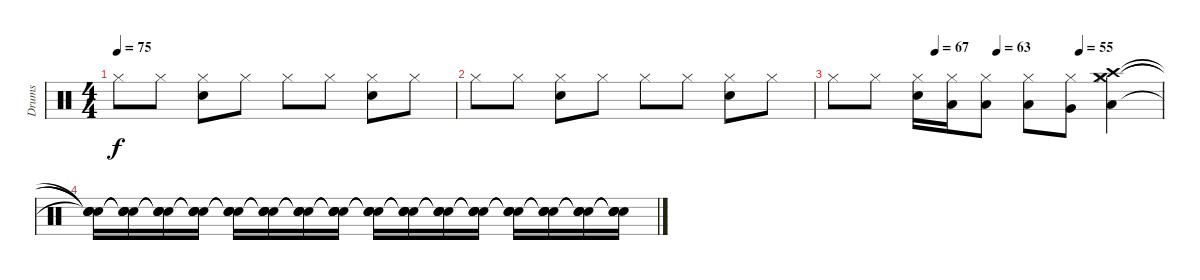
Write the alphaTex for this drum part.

\track ("Drums" "Drums") {instrument percussion}
\staff {score}
\articulation defaults
\ts (4 4)
\tempo 75
\clef neutral
\ks c "Hi-Hat (closed)".8{dy f} "Hi-Hat (closed)".8
("Electric Snare (hit)" "Hi-Hat (closed)").8 "Hi-Hat (closed)".8 "Hi-Hat (closed)".8 "Hi-Hat (closed)".8 ("Electric Snare (hit)" "Hi-Hat (closed)").8 "Hi-Hat (closed)".8 |
"Hi-Hat (closed)".8 "Hi-Hat (closed)".8 ("Electric Snare (hit)" "Hi-Hat (closed)").8 "Hi-Hat (closed)".8 "Hi-Hat (closed)".8 "Hi-Hat (closed)".8 ("Electric Snare (hit)" "Hi-Hat (closed)").8 "Hi-Hat (closed)".8 |
\tempo (67 0.3125)
\tempo (63 0.5)
\tempo (55 0.75)
"Hi-Hat (closed)".8 "Hi-Hat (closed)".8 ("Electric Snare (hit)" "Hi-Hat (closed)").16 ("Low Tom (hit)" "Hi-Hat (closed)").16 ("Low Tom (hit)" "Hi-Hat (closed)").8 ("Low Tom (hit)" "Hi-Hat (closed)").8 ("Very Low Tom (hit)" "Hi-Hat (closed)").8 ("Crash medium (hit)" "Crash high (hit)" "Low Floor Tom (hit)" "Hi-Hat (closed)").4 |
("Snare (hit)"{t} "Snare (hit)"{t} "Snare (hit)"{t} "Snare (hit)"{t}).16 ("Snare (hit)"{t} "Snare (hit)"{t} "Snare (hit)"{t} "Snare (hit)"{t}).16 ("Snare (hit)"{t} "Snare (hit)"{t} "Snare (hit)"{t} "Snare (hit)"{t}).16 ("Snare (hit)"{t} "Snare (hit)"{t} "Snare (hit)"{t} "Snare (hit)"{t}).16 ("Snare (hit)"{t} "Snare (hit)"{t} "Snare (hit)"{t} "Snare (hit)"{t}).16 ("Snare (hit)"{t} "Snare (hit)"{t} "Snare (hit)"{t} "Snare (hit)"{t}).16 ("Snare (hit)"{t} "Snare (hit)"{t} "Snare (hit)"{t} "Snare (hit)"{t}).16 ("Snare (hit)"{t} "Snare (hit)"{t} "Snare (hit)"{t} "Snare (hit)"{t}).16 ("Snare (hit)"{t} "Snare (hit)"{t} "Snare (hit)"{t} "Snare (hit)"{t}).16 ("Snare (hit)"{t} "Snare (hit)"{t} "Snare (hit)"{t} "Snare (hit)"{t}).16 ("Snare (hit)"{t} "Snare (hit)"{t} "Snare (hit)"{t} "Snare (hit)"{t}).16 ("Snare (hit)"{t} "Snare (hit)"{t} "Snare (hit)"{t} "Snare (hit)"{t}).16 ("Snare (hit)"{t} "Snare (hit)"{t} "Snare (hit)"{t} "Snare (hit)"{t}).16 ("Snare (hit)"{t} "Snare (hit)"{t} "Snare (hit)"{t} "Snare (hit)"{t}).16 ("Snare (hit)"{t} "Snare (hit)"{t} "Snare (hit)"{t} "Snare (hit)"{t}).16 ("Snare (hit)"{t} "Snare (hit)"{t} "Snare (hit)"{t} "Snare (hit)"{t}).16
